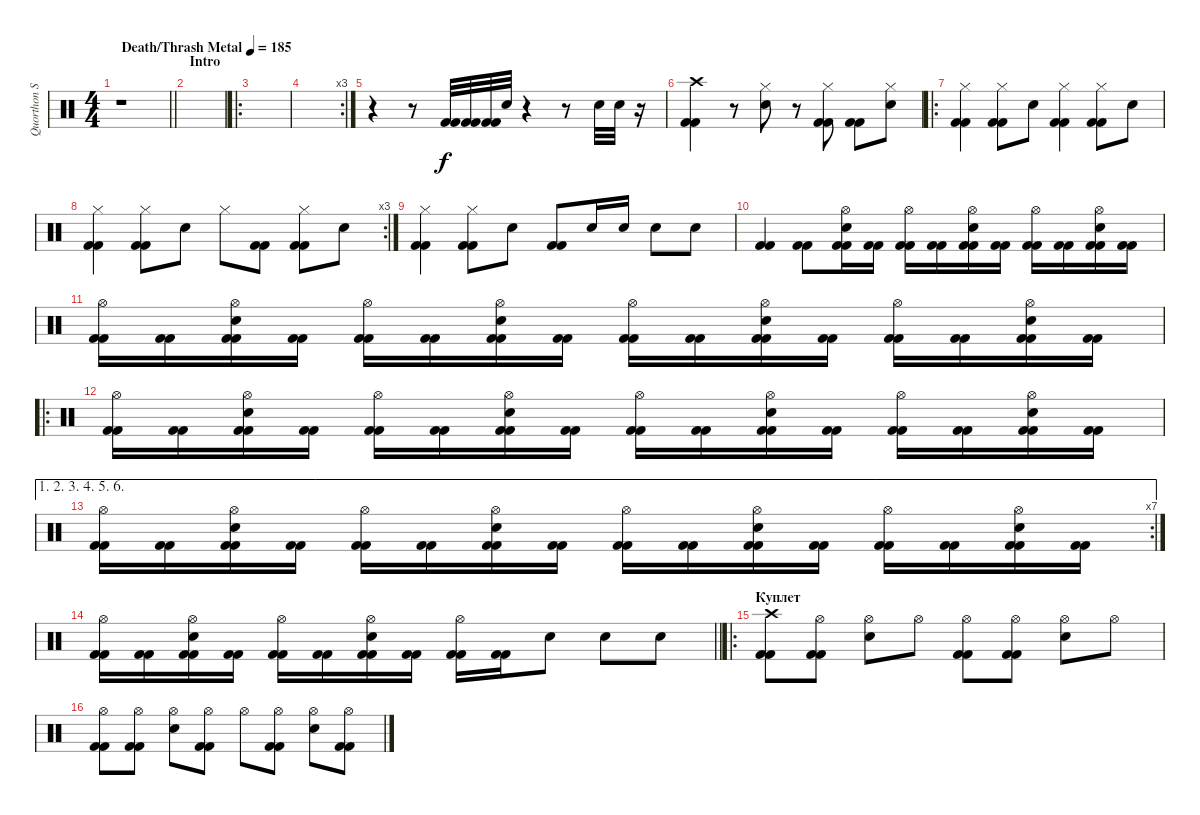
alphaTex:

\track ("Quorthon Seth" "Quorthon S") {instrument percussion}
\staff {score}
\articulation defaults
\ts (4 4)
\tempo (185 "Death/Thrash Metal")
\clef neutral
\barLineRight lightlight
\ks c
r.1{dy f} |
\section ("" "Intro")
|
\ro
|
\rc 3
|
r.4 r.8 ("Kick (hit) 2" "Kick (hit) 2").32 ("Kick (hit) 2" "Kick (hit) 2").32 ("Kick (hit) 2" "Kick (hit) 2").32 "Electric Snare (hit)".32 r.4 r.8 "Electric Snare (hit)".32 "Electric Snare (hit)".32 r.16 |
("Crash high (hit)" "Kick (hit) 2" "Kick (hit) 2").4 r.8 ("Hi-Hat (closed)" "Electric Snare (hit)").8 r.8 ("Hi-Hat (closed)" "Kick (hit) 2" "Kick (hit) 2").8 ("Kick (hit) 2" "Kick (hit) 2").8 ("Hi-Hat (closed)" "Electric Snare (hit)").8 |
\ro
("Hi-Hat (closed)" "Kick (hit) 2" "Kick (hit) 2").4 ("Hi-Hat (closed)" "Kick (hit) 2" "Kick (hit) 2").8 "Electric Snare (hit)".8 ("Hi-Hat (closed)" "Kick (hit) 2" "Kick (hit) 2").4 ("Hi-Hat (closed)" "Kick (hit) 2" "Kick (hit) 2").8 "Electric Snare (hit)".8 |
\rc 3
("Hi-Hat (closed)" "Kick (hit) 2" "Kick (hit) 2").4 ("Hi-Hat (closed)" "Kick (hit) 2" "Kick (hit) 2").8 "Electric Snare (hit)".8 "Hi-Hat (closed)".8 ("Kick (hit) 2" "Kick (hit) 2").8 ("Hi-Hat (closed)" "Kick (hit) 2" "Kick (hit) 2").8 "Electric Snare (hit)".8 |
("Hi-Hat (closed)" "Kick (hit) 2" "Kick (hit) 2").4 ("Hi-Hat (closed)" "Kick (hit) 2" "Kick (hit) 2").8 "Electric Snare (hit)".8 ("Kick (hit) 2" "Kick (hit) 2").8 "Electric Snare (hit)".16 "Electric Snare (hit)".16 "Electric Snare (hit)".8 "Electric Snare (hit)".8 |
("Kick (hit) 2" "Kick (hit) 2").4 ("Kick (hit) 2" "Kick (hit) 2").8 ("Hi-Hat (open)" "Kick (hit) 2" "Kick (hit) 2" "Electric Snare (hit)").16 ("Kick (hit) 2" "Kick (hit) 2").16 ("Hi-Hat (open)" "Kick (hit) 2" "Kick (hit) 2").16 ("Kick (hit) 2" "Kick (hit) 2").16 ("Hi-Hat (open)" "Kick (hit) 2" "Kick (hit) 2" "Electric Snare (hit)").16 ("Kick (hit) 2" "Kick (hit) 2").16 ("Hi-Hat (open)" "Kick (hit) 2" "Kick (hit) 2").16 ("Kick (hit) 2" "Kick (hit) 2").16 ("Hi-Hat (open)" "Kick (hit) 2" "Kick (hit) 2" "Electric Snare (hit)").16 ("Kick (hit) 2" "Kick (hit) 2").16 |
("Hi-Hat (open)" "Kick (hit) 2" "Kick (hit) 2").16 ("Kick (hit) 2" "Kick (hit) 2").16 ("Hi-Hat (open)" "Kick (hit) 2" "Kick (hit) 2" "Electric Snare (hit)").16 ("Kick (hit) 2" "Kick (hit) 2").16 ("Hi-Hat (open)" "Kick (hit) 2" "Kick (hit) 2").16 ("Kick (hit) 2" "Kick (hit) 2").16 ("Hi-Hat (open)" "Kick (hit) 2" "Kick (hit) 2" "Electric Snare (hit)").16 ("Kick (hit) 2" "Kick (hit) 2").16 ("Hi-Hat (open)" "Kick (hit) 2" "Kick (hit) 2").16 ("Kick (hit) 2" "Kick (hit) 2").16 ("Hi-Hat (open)" "Kick (hit) 2" "Kick (hit) 2" "Electric Snare (hit)").16 ("Kick (hit) 2" "Kick (hit) 2").16 ("Hi-Hat (open)" "Kick (hit) 2" "Kick (hit) 2").16 ("Kick (hit) 2" "Kick (hit) 2").16 ("Hi-Hat (open)" "Kick (hit) 2" "Kick (hit) 2" "Electric Snare (hit)").16 ("Kick (hit) 2" "Kick (hit) 2").16 |
\ro
("Hi-Hat (open)" "Kick (hit) 2" "Kick (hit) 2").16 ("Kick (hit) 2" "Kick (hit) 2").16 ("Hi-Hat (open)" "Kick (hit) 2" "Kick (hit) 2" "Electric Snare (hit)").16 ("Kick (hit) 2" "Kick (hit) 2").16 ("Hi-Hat (open)" "Kick (hit) 2" "Kick (hit) 2").16 ("Kick (hit) 2" "Kick (hit) 2").16 ("Hi-Hat (open)" "Kick (hit) 2" "Kick (hit) 2" "Electric Snare (hit)").16 ("Kick (hit) 2" "Kick (hit) 2").16 ("Hi-Hat (open)" "Kick (hit) 2" "Kick (hit) 2").16 ("Kick (hit) 2" "Kick (hit) 2").16 ("Hi-Hat (open)" "Kick (hit) 2" "Kick (hit) 2" "Electric Snare (hit)").16 ("Kick (hit) 2" "Kick (hit) 2").16 ("Hi-Hat (open)" "Kick (hit) 2" "Kick (hit) 2").16 ("Kick (hit) 2" "Kick (hit) 2").16 ("Hi-Hat (open)" "Kick (hit) 2" "Kick (hit) 2" "Electric Snare (hit)").16 ("Kick (hit) 2" "Kick (hit) 2").16 |
\ae (1 2 3 4 5 6)
\rc 7
("Hi-Hat (open)" "Kick (hit) 2" "Kick (hit) 2").16 ("Kick (hit) 2" "Kick (hit) 2").16 ("Hi-Hat (open)" "Kick (hit) 2" "Kick (hit) 2" "Electric Snare (hit)").16 ("Kick (hit) 2" "Kick (hit) 2").16 ("Hi-Hat (open)" "Kick (hit) 2" "Kick (hit) 2").16 ("Kick (hit) 2" "Kick (hit) 2").16 ("Hi-Hat (open)" "Kick (hit) 2" "Kick (hit) 2" "Electric Snare (hit)").16 ("Kick (hit) 2" "Kick (hit) 2").16 ("Hi-Hat (open)" "Kick (hit) 2" "Kick (hit) 2").16 ("Kick (hit) 2" "Kick (hit) 2").16 ("Hi-Hat (open)" "Kick (hit) 2" "Kick (hit) 2" "Electric Snare (hit)").16 ("Kick (hit) 2" "Kick (hit) 2").16 ("Hi-Hat (open)" "Kick (hit) 2" "Kick (hit) 2").16 ("Kick (hit) 2" "Kick (hit) 2").16 ("Hi-Hat (open)" "Kick (hit) 2" "Kick (hit) 2" "Electric Snare (hit)").16 ("Kick (hit) 2" "Kick (hit) 2").16 |
\barLineRight lightlight
("Hi-Hat (open)" "Kick (hit) 2" "Kick (hit) 2").16 ("Kick (hit) 2" "Kick (hit) 2").16 ("Hi-Hat (open)" "Kick (hit) 2" "Kick (hit) 2" "Electric Snare (hit)").16 ("Kick (hit) 2" "Kick (hit) 2").16 ("Hi-Hat (open)" "Kick (hit) 2" "Kick (hit) 2").16 ("Kick (hit) 2" "Kick (hit) 2").16 ("Hi-Hat (open)" "Kick (hit) 2" "Kick (hit) 2" "Electric Snare (hit)").16 ("Kick (hit) 2" "Kick (hit) 2").16 ("Hi-Hat (open)" "Kick (hit) 2" "Kick (hit) 2").16 ("Kick (hit) 2" "Kick (hit) 2").16 "Electric Snare (hit)".8 "Electric Snare (hit)".8 "Electric Snare (hit)".8 |
\ro
\section ("" "Куплет")
("Crash high (hit)" "Kick (hit) 2" "Kick (hit) 2").8 ("Hi-Hat (open)" "Kick (hit) 2" "Kick (hit) 2").8 ("Hi-Hat (open)" "Electric Snare (hit)").8 "Hi-Hat (open)".8 ("Hi-Hat (open)" "Kick (hit) 2" "Kick (hit) 2").8 ("Hi-Hat (open)" "Kick (hit) 2" "Kick (hit) 2").8 ("Hi-Hat (open)" "Electric Snare (hit)").8 "Hi-Hat (open)".8 |
("Hi-Hat (open)" "Kick (hit) 2" "Kick (hit) 2").8 ("Hi-Hat (open)" "Kick (hit) 2" "Kick (hit) 2").8 ("Hi-Hat (open)" "Electric Snare (hit)").8 ("Hi-Hat (open)" "Kick (hit) 2" "Kick (hit) 2").8 "Hi-Hat (open)".8 ("Hi-Hat (open)" "Kick (hit) 2" "Kick (hit) 2").8 ("Hi-Hat (open)" "Electric Snare (hit)").8 ("Hi-Hat (open)" "Kick (hit) 2" "Kick (hit) 2").8
